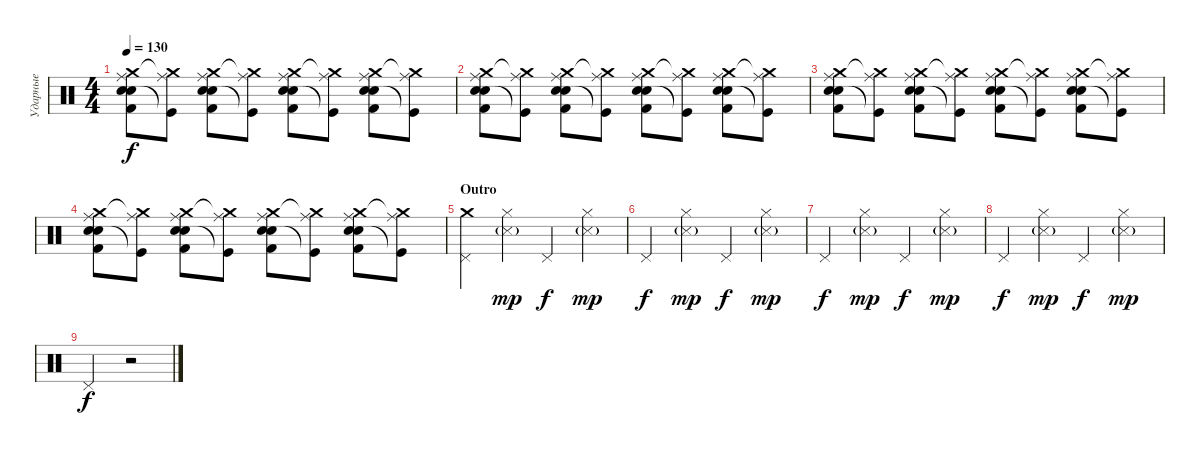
\track ("Ударные" "Ударные") {instrument percussion}
\staff {score}
\articulation defaults
\ts (4 4)
\tempo 130
\clef neutral
\ks c
("Crash medium (hit)" "Electric Snare (hit)" "Ride (middle)" "Kick (hit) 2" "Snare (hit) 2").8{dy f} ("Crash medium (hit)"{t} "Kick (hit)"{t} "Ride (middle)").8 ("Crash medium (hit)" "Electric Snare (hit)" "Ride (middle)" "Kick (hit) 2" "Snare (hit) 2").8 ("Crash medium (hit)"{t} "Kick (hit)"{t} "Ride (middle)").8 ("Crash medium (hit)" "Electric Snare (hit)" "Ride (middle)" "Kick (hit) 2" "Snare (hit) 2").8 ("Crash medium (hit)"{t} "Kick (hit)"{t} "Ride (middle)").8 ("Crash medium (hit)" "Electric Snare (hit)" "Ride (middle)" "Kick (hit) 2" "Snare (hit) 2").8 ("Crash medium (hit)"{t} "Kick (hit)"{t} "Ride (middle)").8 |
("Crash medium (hit)" "Electric Snare (hit)" "Ride (middle)" "Kick (hit) 2" "Snare (hit) 2").8 ("Crash medium (hit)"{t} "Kick (hit)"{t} "Ride (middle)").8 ("Crash medium (hit)" "Electric Snare (hit)" "Ride (middle)" "Kick (hit) 2" "Snare (hit) 2").8 ("Crash medium (hit)"{t} "Kick (hit)"{t} "Ride (middle)").8 ("Crash medium (hit)" "Electric Snare (hit)" "Ride (middle)" "Kick (hit) 2" "Snare (hit) 2").8 ("Crash medium (hit)"{t} "Kick (hit)"{t} "Ride (middle)").8 ("Crash medium (hit)" "Electric Snare (hit)" "Ride (middle)" "Kick (hit) 2" "Snare (hit) 2").8 ("Crash medium (hit)"{t} "Kick (hit)"{t} "Ride (middle)").8 |
("Crash medium (hit)" "Electric Snare (hit)" "Ride (middle)" "Kick (hit) 2" "Snare (hit) 2").8 ("Crash medium (hit)"{t} "Kick (hit)"{t} "Ride (middle)").8 ("Crash medium (hit)" "Electric Snare (hit)" "Ride (middle)" "Kick (hit) 2" "Snare (hit) 2").8 ("Crash medium (hit)"{t} "Kick (hit)"{t} "Ride (middle)").8 ("Crash medium (hit)" "Electric Snare (hit)" "Ride (middle)" "Kick (hit) 2" "Snare (hit) 2").8 ("Crash medium (hit)"{t} "Kick (hit)"{t} "Ride (middle)").8 ("Crash medium (hit)" "Electric Snare (hit)" "Ride (middle)" "Kick (hit) 2" "Snare (hit) 2").8 ("Crash medium (hit)"{t} "Kick (hit)"{t} "Ride (middle)").8 |
("Crash medium (hit)" "Electric Snare (hit)" "Ride (middle)" "Kick (hit) 2" "Snare (hit) 2").8 ("Crash medium (hit)"{t} "Kick (hit)"{t} "Ride (middle)").8 ("Crash medium (hit)" "Electric Snare (hit)" "Ride (middle)" "Kick (hit) 2" "Snare (hit) 2").8 ("Crash medium (hit)"{t} "Kick (hit)"{t} "Ride (middle)").8 ("Crash medium (hit)" "Electric Snare (hit)" "Ride (middle)" "Kick (hit) 2" "Snare (hit) 2").8 ("Crash medium (hit)"{t} "Kick (hit)"{t} "Ride (middle)").8 ("Crash medium (hit)" "Electric Snare (hit)" "Ride (middle)" "Kick (hit) 2" "Snare (hit) 2").8 ("Crash medium (hit)"{t} "Kick (hit)"{t} "Ride (middle)").8 |
\section ("" "Outro")
("Crash medium (hit)" "Pedal Hi-Hat (hit)").4 ("Metronome (hit)"{g} "Hi-Hat (closed)").4{dy mp volume 12} "Pedal Hi-Hat (hit)".4{dy f} ("Metronome (hit)"{g} "Hi-Hat (closed)").4{dy mp} |
"Pedal Hi-Hat (hit)".4{dy f} ("Metronome (hit)"{g} "Hi-Hat (closed)").4{dy mp} "Pedal Hi-Hat (hit)".4{dy f} ("Metronome (hit)"{g} "Hi-Hat (closed)").4{dy mp} |
"Pedal Hi-Hat (hit)".4{dy f} ("Metronome (hit)"{g} "Hi-Hat (closed)").4{dy mp} "Pedal Hi-Hat (hit)".4{dy f} ("Metronome (hit)"{g} "Hi-Hat (closed)").4{dy mp} |
"Pedal Hi-Hat (hit)".4{dy f} ("Metronome (hit)"{g} "Hi-Hat (closed)").4{dy mp} "Pedal Hi-Hat (hit)".4{dy f} ("Metronome (hit)"{g} "Hi-Hat (closed)").4{dy mp} |
"Pedal Hi-Hat (hit)".2{dy f} r.2
